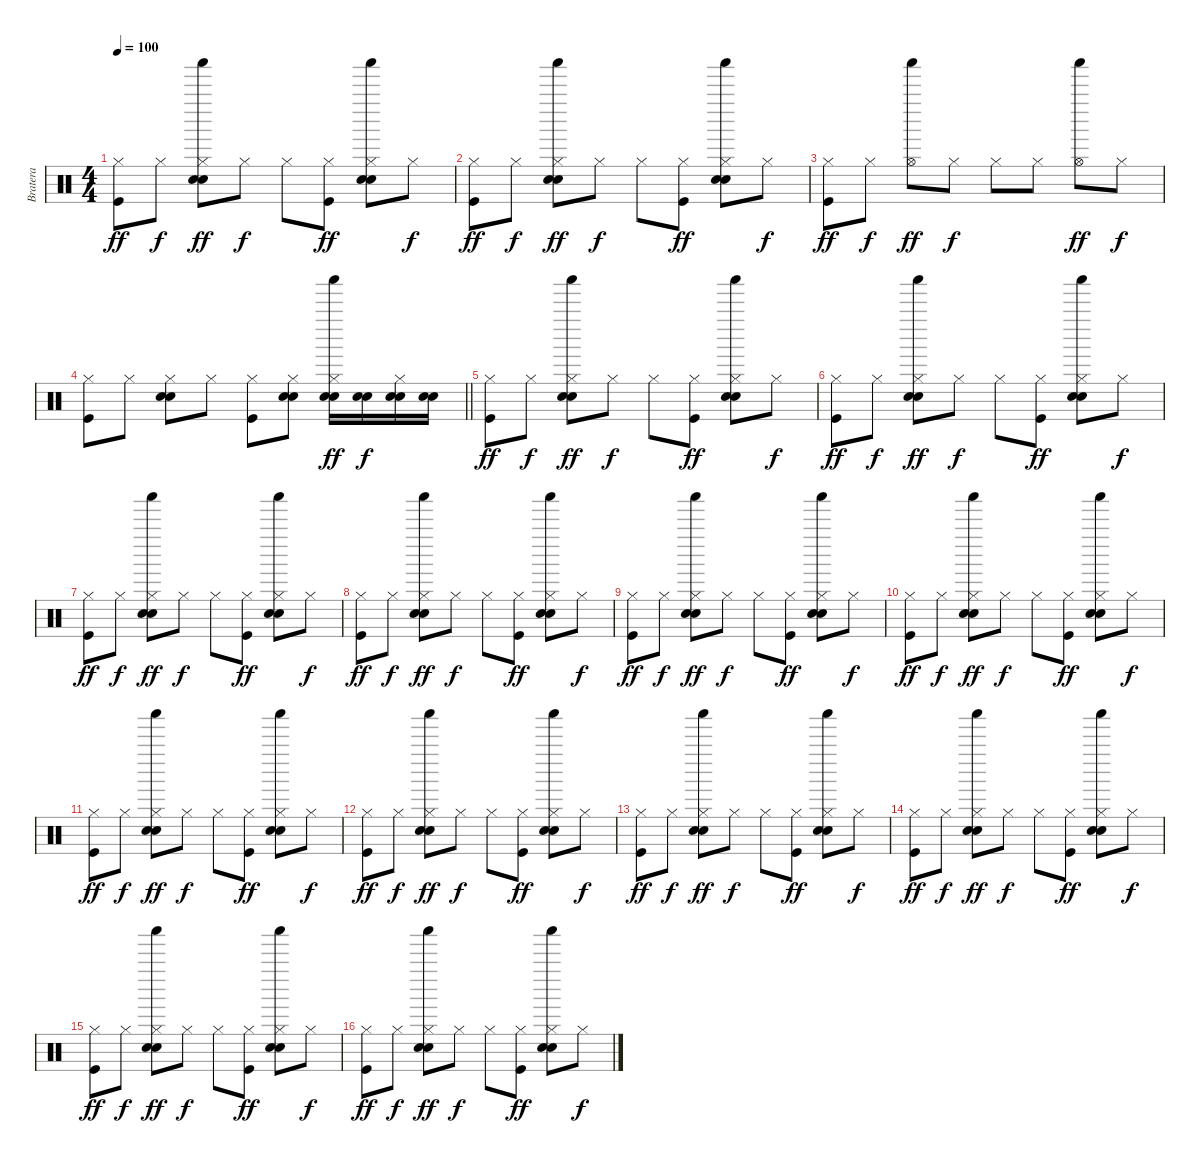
\track ("Bratera" "Bratera") {instrument percussion}
\staff {score}
\articulation defaults
\ts (4 4)
\tempo 100
\clef neutral
\ks c
("Hi-Hat (closed)" "Kick (hit)").8{dy ff} "Hi-Hat (closed)".8{dy f} ("Hi-Hat (closed)" "Shaker (hit)" "Snare (hit) 2" "Electric Snare (hit)").8{dy ff} "Hi-Hat (closed)".8{dy f} "Hi-Hat (closed)".8 ("Hi-Hat (closed)" "Kick (hit)").8{dy ff} ("Hi-Hat (closed)" "Shaker (hit)" "Snare (hit) 2" "Electric Snare (hit)").8 "Hi-Hat (closed)".8{dy f} |
("Hi-Hat (closed)" "Kick (hit)").8{dy ff} "Hi-Hat (closed)".8{dy f} ("Hi-Hat (closed)" "Shaker (hit)" "Snare (hit) 2" "Electric Snare (hit)").8{dy ff} "Hi-Hat (closed)".8{dy f} "Hi-Hat (closed)".8 ("Hi-Hat (closed)" "Kick (hit)").8{dy ff} ("Hi-Hat (closed)" "Shaker (hit)" "Snare (hit) 2" "Electric Snare (hit)").8 "Hi-Hat (closed)".8{dy f} |
("Hi-Hat (closed)" "Kick (hit)").8{dy ff} "Hi-Hat (closed)".8{dy f} ("Hi-Hat (open)" "Shaker (hit)").8{dy ff} "Hi-Hat (closed)".8{dy f} "Hi-Hat (closed)".8 "Hi-Hat (closed)".8 ("Hi-Hat (open)" "Shaker (hit)").8{dy ff} "Hi-Hat (closed)".8{dy f} |
\barLineRight lightlight
("Hi-Hat (closed)" "Kick (hit)").8 "Hi-Hat (closed)".8 ("Hi-Hat (closed)" "Snare (hit) 2" "Electric Snare (hit)").8 "Hi-Hat (closed)".8 ("Hi-Hat (closed)" "Kick (hit)").8 ("Hi-Hat (closed)" "Snare (hit) 2" "Electric Snare (hit)").8 ("Hi-Hat (closed)" "Shaker (hit)" "Snare (hit) 2" "Electric Snare (hit)").16{dy ff} ("Snare (hit) 2" "Electric Snare (hit)").16{dy f} ("Hi-Hat (closed)" "Snare (hit) 2" "Electric Snare (hit)").16 ("Snare (hit) 2" "Electric Snare (hit)").16 |
("Hi-Hat (closed)" "Kick (hit)").8{dy ff} "Hi-Hat (closed)".8{dy f} ("Hi-Hat (closed)" "Shaker (hit)" "Snare (hit) 2" "Electric Snare (hit)").8{dy ff} "Hi-Hat (closed)".8{dy f} "Hi-Hat (closed)".8 ("Hi-Hat (closed)" "Kick (hit)").8{dy ff} ("Hi-Hat (closed)" "Shaker (hit)" "Snare (hit) 2" "Electric Snare (hit)").8 "Hi-Hat (closed)".8{dy f} |
("Hi-Hat (closed)" "Kick (hit)").8{dy ff} "Hi-Hat (closed)".8{dy f} ("Hi-Hat (closed)" "Shaker (hit)" "Snare (hit) 2" "Electric Snare (hit)").8{dy ff} "Hi-Hat (closed)".8{dy f} "Hi-Hat (closed)".8 ("Hi-Hat (closed)" "Kick (hit)").8{dy ff} ("Hi-Hat (closed)" "Shaker (hit)" "Snare (hit) 2" "Electric Snare (hit)").8 "Hi-Hat (closed)".8{dy f} |
("Hi-Hat (closed)" "Kick (hit)").8{dy ff} "Hi-Hat (closed)".8{dy f} ("Hi-Hat (closed)" "Shaker (hit)" "Snare (hit) 2" "Electric Snare (hit)").8{dy ff} "Hi-Hat (closed)".8{dy f} "Hi-Hat (closed)".8 ("Hi-Hat (closed)" "Kick (hit)").8{dy ff} ("Hi-Hat (closed)" "Shaker (hit)" "Snare (hit) 2" "Electric Snare (hit)").8 "Hi-Hat (closed)".8{dy f} |
("Hi-Hat (closed)" "Kick (hit)").8{dy ff} "Hi-Hat (closed)".8{dy f} ("Hi-Hat (closed)" "Shaker (hit)" "Snare (hit) 2" "Electric Snare (hit)").8{dy ff} "Hi-Hat (closed)".8{dy f} "Hi-Hat (closed)".8 ("Hi-Hat (closed)" "Kick (hit)").8{dy ff} ("Hi-Hat (closed)" "Shaker (hit)" "Snare (hit) 2" "Electric Snare (hit)").8 "Hi-Hat (closed)".8{dy f} |
("Hi-Hat (closed)" "Kick (hit)").8{dy ff} "Hi-Hat (closed)".8{dy f} ("Hi-Hat (closed)" "Shaker (hit)" "Snare (hit) 2" "Electric Snare (hit)").8{dy ff} "Hi-Hat (closed)".8{dy f} "Hi-Hat (closed)".8 ("Hi-Hat (closed)" "Kick (hit)").8{dy ff} ("Hi-Hat (closed)" "Shaker (hit)" "Snare (hit) 2" "Electric Snare (hit)").8 "Hi-Hat (closed)".8{dy f} |
("Hi-Hat (closed)" "Kick (hit)").8{dy ff} "Hi-Hat (closed)".8{dy f} ("Hi-Hat (closed)" "Shaker (hit)" "Snare (hit) 2" "Electric Snare (hit)").8{dy ff} "Hi-Hat (closed)".8{dy f} "Hi-Hat (closed)".8 ("Hi-Hat (closed)" "Kick (hit)").8{dy ff} ("Hi-Hat (closed)" "Shaker (hit)" "Snare (hit) 2" "Electric Snare (hit)").8 "Hi-Hat (closed)".8{dy f} |
("Hi-Hat (closed)" "Kick (hit)").8{dy ff} "Hi-Hat (closed)".8{dy f} ("Hi-Hat (closed)" "Shaker (hit)" "Snare (hit) 2" "Electric Snare (hit)").8{dy ff} "Hi-Hat (closed)".8{dy f} "Hi-Hat (closed)".8 ("Hi-Hat (closed)" "Kick (hit)").8{dy ff} ("Hi-Hat (closed)" "Shaker (hit)" "Snare (hit) 2" "Electric Snare (hit)").8 "Hi-Hat (closed)".8{dy f} |
("Hi-Hat (closed)" "Kick (hit)").8{dy ff} "Hi-Hat (closed)".8{dy f} ("Hi-Hat (closed)" "Shaker (hit)" "Snare (hit) 2" "Electric Snare (hit)").8{dy ff} "Hi-Hat (closed)".8{dy f} "Hi-Hat (closed)".8 ("Hi-Hat (closed)" "Kick (hit)").8{dy ff} ("Hi-Hat (closed)" "Shaker (hit)" "Snare (hit) 2" "Electric Snare (hit)").8 "Hi-Hat (closed)".8{dy f} |
("Hi-Hat (closed)" "Kick (hit)").8{dy ff} "Hi-Hat (closed)".8{dy f} ("Hi-Hat (closed)" "Shaker (hit)" "Snare (hit) 2" "Electric Snare (hit)").8{dy ff} "Hi-Hat (closed)".8{dy f} "Hi-Hat (closed)".8 ("Hi-Hat (closed)" "Kick (hit)").8{dy ff} ("Hi-Hat (closed)" "Shaker (hit)" "Snare (hit) 2" "Electric Snare (hit)").8 "Hi-Hat (closed)".8{dy f} |
("Hi-Hat (closed)" "Kick (hit)").8{dy ff} "Hi-Hat (closed)".8{dy f} ("Hi-Hat (closed)" "Shaker (hit)" "Snare (hit) 2" "Electric Snare (hit)").8{dy ff} "Hi-Hat (closed)".8{dy f} "Hi-Hat (closed)".8 ("Hi-Hat (closed)" "Kick (hit)").8{dy ff} ("Hi-Hat (closed)" "Shaker (hit)" "Snare (hit) 2" "Electric Snare (hit)").8 "Hi-Hat (closed)".8{dy f} |
("Hi-Hat (closed)" "Kick (hit)").8{dy ff} "Hi-Hat (closed)".8{dy f} ("Hi-Hat (closed)" "Shaker (hit)" "Snare (hit) 2" "Electric Snare (hit)").8{dy ff} "Hi-Hat (closed)".8{dy f} "Hi-Hat (closed)".8 ("Hi-Hat (closed)" "Kick (hit)").8{dy ff} ("Hi-Hat (closed)" "Shaker (hit)" "Snare (hit) 2" "Electric Snare (hit)").8 "Hi-Hat (closed)".8{dy f} |
("Hi-Hat (closed)" "Kick (hit)").8{dy ff} "Hi-Hat (closed)".8{dy f} ("Hi-Hat (closed)" "Shaker (hit)" "Snare (hit) 2" "Electric Snare (hit)").8{dy ff} "Hi-Hat (closed)".8{dy f} "Hi-Hat (closed)".8 ("Hi-Hat (closed)" "Kick (hit)").8{dy ff} ("Hi-Hat (closed)" "Shaker (hit)" "Snare (hit) 2" "Electric Snare (hit)").8 "Hi-Hat (closed)".8{dy f}
